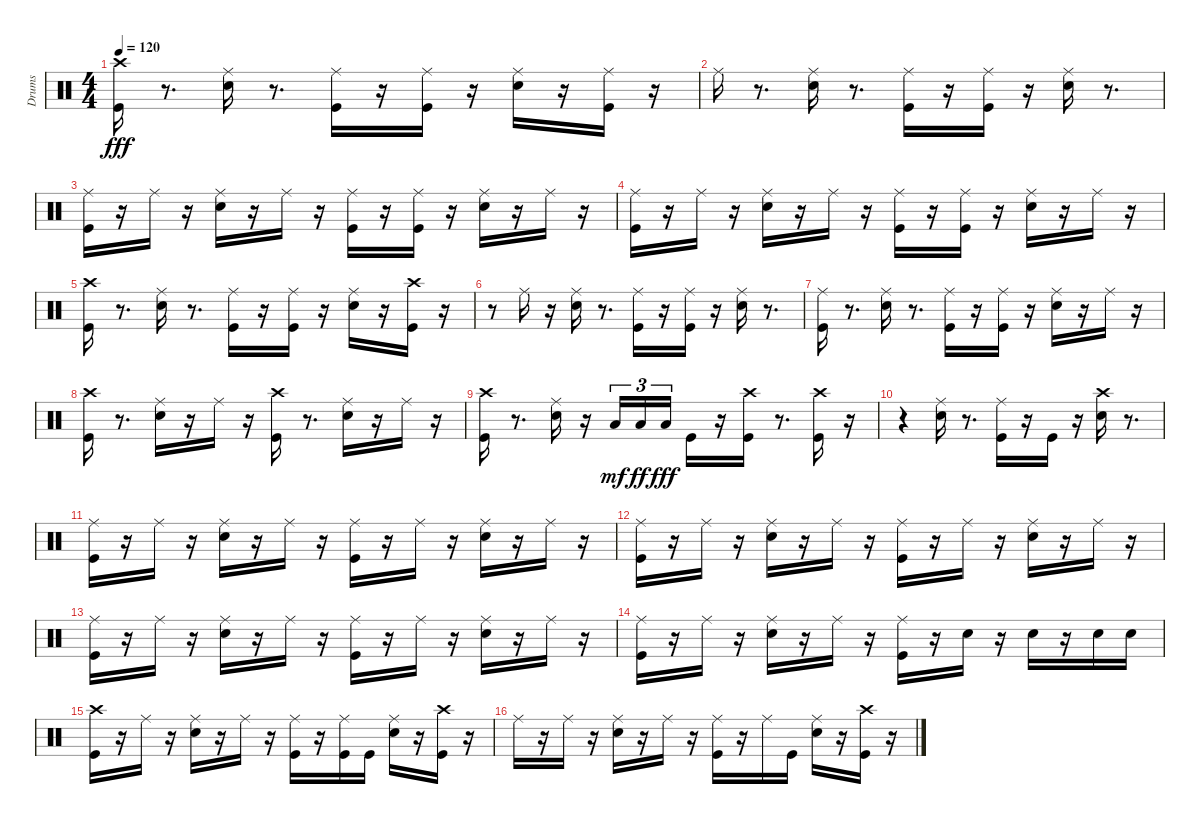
\track ("Drums" "Drums") {instrument percussion}
\staff {score}
\articulation defaults
\ts (4 4)
\tempo 120
\clef neutral
\ks c
("Crash high (hit)" "Kick (hit)").16{dy fff} r.8{d} ("Ride (middle)" "Snare (hit) 2").16 r.8{d} ("Ride (middle)" "Kick (hit)").16 r.16 ("Ride (middle)" "Kick (hit)").16 r.16 ("Ride (middle)" "Snare (hit) 2").16 r.16 ("Ride (middle)" "Kick (hit)").16 r.16 |
"Ride (middle)".16 r.8{d} ("Ride (middle)" "Snare (hit) 2").16 r.8{d} ("Ride (middle)" "Kick (hit)").16 r.16 ("Ride (middle)" "Kick (hit)").16 r.16 ("Ride (middle)" "Snare (hit) 2").16 r.8{d} |
("Ride (middle)" "Kick (hit)").16 r.16 "Ride (middle)".16 r.16 ("Ride (middle)" "Snare (hit) 2").16 r.16 "Ride (middle)".16 r.16 ("Ride (middle)" "Kick (hit)").16 r.16 ("Ride (middle)" "Kick (hit)").16 r.16 ("Ride (middle)" "Snare (hit) 2").16 r.16 "Ride (middle)".16 r.16 |
("Ride (middle)" "Kick (hit)").16 r.16 "Ride (middle)".16 r.16 ("Ride (middle)" "Snare (hit) 2").16 r.16 "Ride (middle)".16 r.16 ("Ride (middle)" "Kick (hit)").16 r.16 ("Ride (middle)" "Kick (hit)").16 r.16 ("Ride (middle)" "Snare (hit) 2").16 r.16 "Ride (middle)".16 r.16 |
("Kick (hit)" "Crash high (hit)").16 r.8{d} ("Snare (hit) 2" "Ride (middle)").16 r.8{d} ("Kick (hit)" "Ride (middle)").16 r.16 ("Kick (hit)" "Ride (middle)").16 r.16 ("Snare (hit) 2" "Ride (middle)").16 r.16 ("Crash high (hit)" "Kick (hit)").16 r.16 |
r.8 "Ride (middle)".16 r.16 ("Ride (middle)" "Snare (hit) 2").16 r.8{d} ("Ride (middle)" "Kick (hit)").16 r.16 ("Ride (middle)" "Kick (hit)").16 r.16 ("Ride (middle)" "Snare (hit) 2").16 r.8{d} |
("Ride (middle)" "Kick (hit)").16 r.8{d} ("Ride (middle)" "Snare (hit) 2").16 r.8{d} ("Ride (middle)" "Kick (hit)").16 r.16 ("Ride (middle)" "Kick (hit)").16 r.16 ("Ride (middle)" "Snare (hit) 2").16 r.16 "Ride (middle)".16 r.16 |
("Kick (hit)" "Crash high (hit)").16 r.8{d} ("Snare (hit) 2" "Ride (middle)").16 r.16 "Ride (middle)".16 r.16 ("Kick (hit)" "Crash high (hit)").16 r.8{d} ("Snare (hit) 2" "Ride (middle)").16 r.16 "Ride (middle)".16 r.16 |
("Crash high (hit)" "Kick (hit)").16 r.8{d} ("Ride (middle)" "Snare (hit) 2").16 r.16 "Low Floor Tom (hit)".16{tu (3 2) dy mf} "Low Floor Tom (hit)".16{tu (3 2) dy ff} "Low Floor Tom (hit)".16{tu (3 2) dy fff} "Kick (hit)".16 r.16 ("Kick (hit)" "Crash high (hit)").16 r.8{d} ("Kick (hit)" "Crash high (hit)").16 r.16 |
r.4 ("Ride (middle)" "Snare (hit) 2").16 r.8{d} ("Ride (middle)" "Kick (hit)").16 r.16 "Kick (hit)".16 r.16 ("Crash high (hit)" "Snare (hit) 2").16 r.8{d} |
("Ride (middle)" "Kick (hit)").16 r.16 "Ride (middle)".16 r.16 ("Ride (middle)" "Snare (hit) 2").16 r.16 "Ride (middle)".16 r.16 ("Ride (middle)" "Kick (hit)").16 r.16 "Ride (middle)".16 r.16 ("Ride (middle)" "Snare (hit) 2").16 r.16 "Ride (middle)".16 r.16 |
("Ride (middle)" "Kick (hit)").16 r.16 "Ride (middle)".16 r.16 ("Ride (middle)" "Snare (hit) 2").16 r.16 "Ride (middle)".16 r.16 ("Ride (middle)" "Kick (hit)").16 r.16 "Ride (middle)".16 r.16 ("Ride (middle)" "Snare (hit) 2").16 r.16 "Ride (middle)".16 r.16 |
("Ride (middle)" "Kick (hit)").16 r.16 "Ride (middle)".16 r.16 ("Ride (middle)" "Snare (hit) 2").16 r.16 "Ride (middle)".16 r.16 ("Ride (middle)" "Kick (hit)").16 r.16 "Ride (middle)".16 r.16 ("Ride (middle)" "Snare (hit) 2").16 r.16 "Ride (middle)".16 r.16 |
("Ride (middle)" "Kick (hit)").16 r.16 "Ride (middle)".16 r.16 ("Ride (middle)" "Snare (hit) 2").16 r.16 "Ride (middle)".16 r.16 ("Ride (middle)" "Kick (hit)").16 r.16 "Snare (hit) 2".16 r.16 "Snare (hit) 2".16 r.16 "Snare (hit) 2".16 "Snare (hit) 2".16 |
("Crash high (hit)" "Kick (hit)").16 r.16 "Ride (middle)".16 r.16 ("Ride (middle)" "Snare (hit) 2").16 r.16 "Ride (middle)".16 r.16 ("Ride (middle)" "Kick (hit)").16 r.16 ("Ride (middle)" "Kick (hit)").16 "Kick (hit)".16 ("Ride (middle)" "Snare (hit) 2").16 r.16 ("Crash high (hit)" "Kick (hit)").16 r.16 |
"Ride (middle)".16 r.16 "Ride (middle)".16 r.16 ("Snare (hit) 2" "Ride (middle)").16 r.16 "Ride (middle)".16 r.16 ("Kick (hit)" "Ride (middle)").16 r.16 "Ride (middle)".16 "Kick (hit)".16 ("Snare (hit) 2" "Ride (middle)").16 r.16 ("Crash high (hit)" "Kick (hit)").16 r.16
